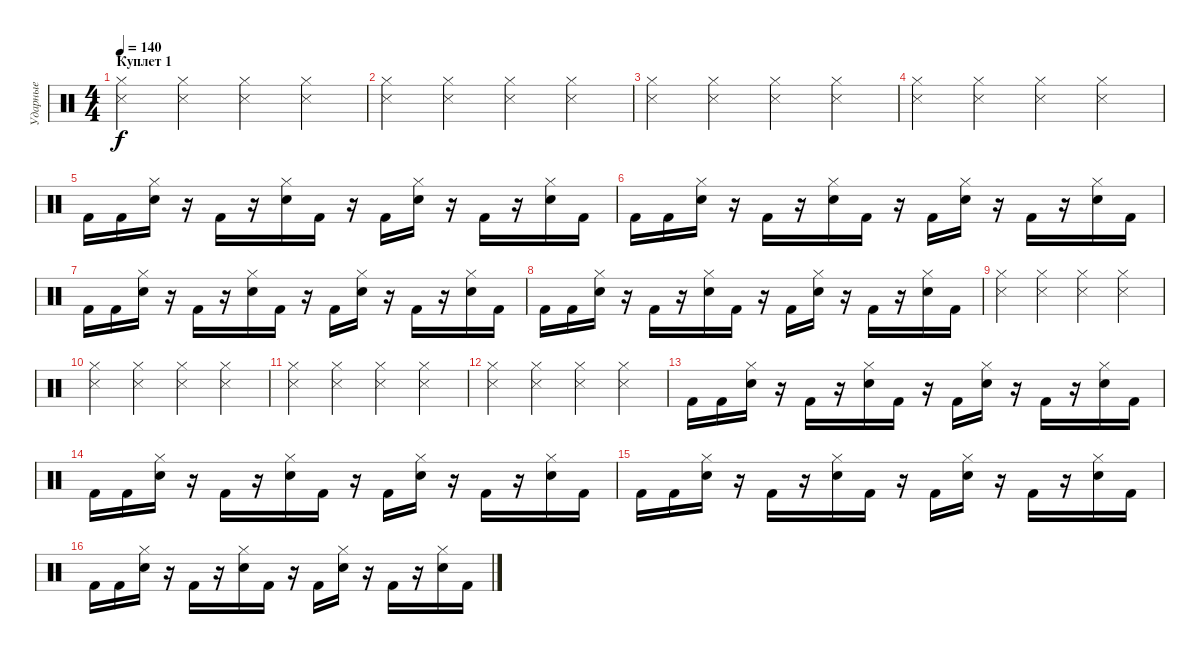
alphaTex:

\track ("Ударные" "Ударные") {instrument percussion}
\staff {score}
\articulation defaults
\ts (4 4)
\section ("" "Куплет 1")
\tempo 140
\clef neutral
\ks c
("Hi-Hat (closed)" "Snare (side stick) 3").4{dy f} ("Hi-Hat (closed)" "Snare (side stick) 3").4 ("Hi-Hat (closed)" "Snare (side stick) 3").4 ("Hi-Hat (closed)" "Snare (side stick) 3").4 |
("Hi-Hat (closed)" "Snare (side stick) 3").4 ("Hi-Hat (closed)" "Snare (side stick) 3").4 ("Hi-Hat (closed)" "Snare (side stick) 3").4 ("Hi-Hat (closed)" "Snare (side stick) 3").4 |
("Hi-Hat (closed)" "Snare (side stick) 3").4 ("Hi-Hat (closed)" "Snare (side stick) 3").4 ("Hi-Hat (closed)" "Snare (side stick) 3").4 ("Hi-Hat (closed)" "Snare (side stick) 3").4 |
("Hi-Hat (closed)" "Snare (side stick) 3").4 ("Hi-Hat (closed)" "Snare (side stick) 3").4 ("Hi-Hat (closed)" "Snare (side stick) 3").4 ("Hi-Hat (closed)" "Snare (side stick) 3").4 |
"Kick (hit) 2".16 "Kick (hit) 2".16 ("Snare (hit) 2" "Hi-Hat (closed)").16 r.16 "Kick (hit) 2".16 r.16 ("Snare (hit) 2" "Hi-Hat (closed)").16 "Kick (hit) 2".16 r.16 "Kick (hit) 2".16 ("Snare (hit) 2" "Hi-Hat (closed)").16 r.16 "Kick (hit) 2".16 r.16 ("Snare (hit) 2" "Hi-Hat (closed)").16 "Kick (hit) 2".16 |
"Kick (hit) 2".16 "Kick (hit) 2".16 ("Snare (hit) 2" "Hi-Hat (closed)").16 r.16 "Kick (hit) 2".16 r.16 ("Snare (hit) 2" "Hi-Hat (closed)").16 "Kick (hit) 2".16 r.16 "Kick (hit) 2".16 ("Snare (hit) 2" "Hi-Hat (closed)").16 r.16 "Kick (hit) 2".16 r.16 ("Snare (hit) 2" "Hi-Hat (closed)").16 "Kick (hit) 2".16 |
"Kick (hit) 2".16 "Kick (hit) 2".16 ("Snare (hit) 2" "Hi-Hat (closed)").16 r.16 "Kick (hit) 2".16 r.16 ("Snare (hit) 2" "Hi-Hat (closed)").16 "Kick (hit) 2".16 r.16 "Kick (hit) 2".16 ("Snare (hit) 2" "Hi-Hat (closed)").16 r.16 "Kick (hit) 2".16 r.16 ("Snare (hit) 2" "Hi-Hat (closed)").16 "Kick (hit) 2".16 |
"Kick (hit) 2".16 "Kick (hit) 2".16 ("Snare (hit) 2" "Hi-Hat (closed)").16 r.16 "Kick (hit) 2".16 r.16 ("Snare (hit) 2" "Hi-Hat (closed)").16 "Kick (hit) 2".16 r.16 "Kick (hit) 2".16 ("Snare (hit) 2" "Hi-Hat (closed)").16 r.16 "Kick (hit) 2".16 r.16 ("Snare (hit) 2" "Hi-Hat (closed)").16 "Kick (hit) 2".16 |
("Hi-Hat (closed)" "Snare (side stick) 3").4 ("Hi-Hat (closed)" "Snare (side stick) 3").4 ("Hi-Hat (closed)" "Snare (side stick) 3").4 ("Hi-Hat (closed)" "Snare (side stick) 3").4 |
("Hi-Hat (closed)" "Snare (side stick) 3").4 ("Hi-Hat (closed)" "Snare (side stick) 3").4 ("Hi-Hat (closed)" "Snare (side stick) 3").4 ("Hi-Hat (closed)" "Snare (side stick) 3").4 |
("Hi-Hat (closed)" "Snare (side stick) 3").4 ("Hi-Hat (closed)" "Snare (side stick) 3").4 ("Hi-Hat (closed)" "Snare (side stick) 3").4 ("Hi-Hat (closed)" "Snare (side stick) 3").4 |
("Hi-Hat (closed)" "Snare (side stick) 3").4 ("Hi-Hat (closed)" "Snare (side stick) 3").4 ("Hi-Hat (closed)" "Snare (side stick) 3").4 ("Hi-Hat (closed)" "Snare (side stick) 3").4 |
"Kick (hit) 2".16 "Kick (hit) 2".16 ("Snare (hit) 2" "Hi-Hat (closed)").16 r.16 "Kick (hit) 2".16 r.16 ("Snare (hit) 2" "Hi-Hat (closed)").16 "Kick (hit) 2".16 r.16 "Kick (hit) 2".16 ("Snare (hit) 2" "Hi-Hat (closed)").16 r.16 "Kick (hit) 2".16 r.16 ("Snare (hit) 2" "Hi-Hat (closed)").16 "Kick (hit) 2".16 |
"Kick (hit) 2".16 "Kick (hit) 2".16 ("Snare (hit) 2" "Hi-Hat (closed)").16 r.16 "Kick (hit) 2".16 r.16 ("Snare (hit) 2" "Hi-Hat (closed)").16 "Kick (hit) 2".16 r.16 "Kick (hit) 2".16 ("Snare (hit) 2" "Hi-Hat (closed)").16 r.16 "Kick (hit) 2".16 r.16 ("Snare (hit) 2" "Hi-Hat (closed)").16 "Kick (hit) 2".16 |
"Kick (hit) 2".16 "Kick (hit) 2".16 ("Snare (hit) 2" "Hi-Hat (closed)").16 r.16 "Kick (hit) 2".16 r.16 ("Snare (hit) 2" "Hi-Hat (closed)").16 "Kick (hit) 2".16 r.16 "Kick (hit) 2".16 ("Snare (hit) 2" "Hi-Hat (closed)").16 r.16 "Kick (hit) 2".16 r.16 ("Snare (hit) 2" "Hi-Hat (closed)").16 "Kick (hit) 2".16 |
"Kick (hit) 2".16 "Kick (hit) 2".16 ("Snare (hit) 2" "Hi-Hat (closed)").16 r.16 "Kick (hit) 2".16 r.16 ("Snare (hit) 2" "Hi-Hat (closed)").16 "Kick (hit) 2".16 r.16 "Kick (hit) 2".16 ("Snare (hit) 2" "Hi-Hat (closed)").16 r.16 "Kick (hit) 2".16 r.16 ("Snare (hit) 2" "Hi-Hat (closed)").16 "Kick (hit) 2".16
